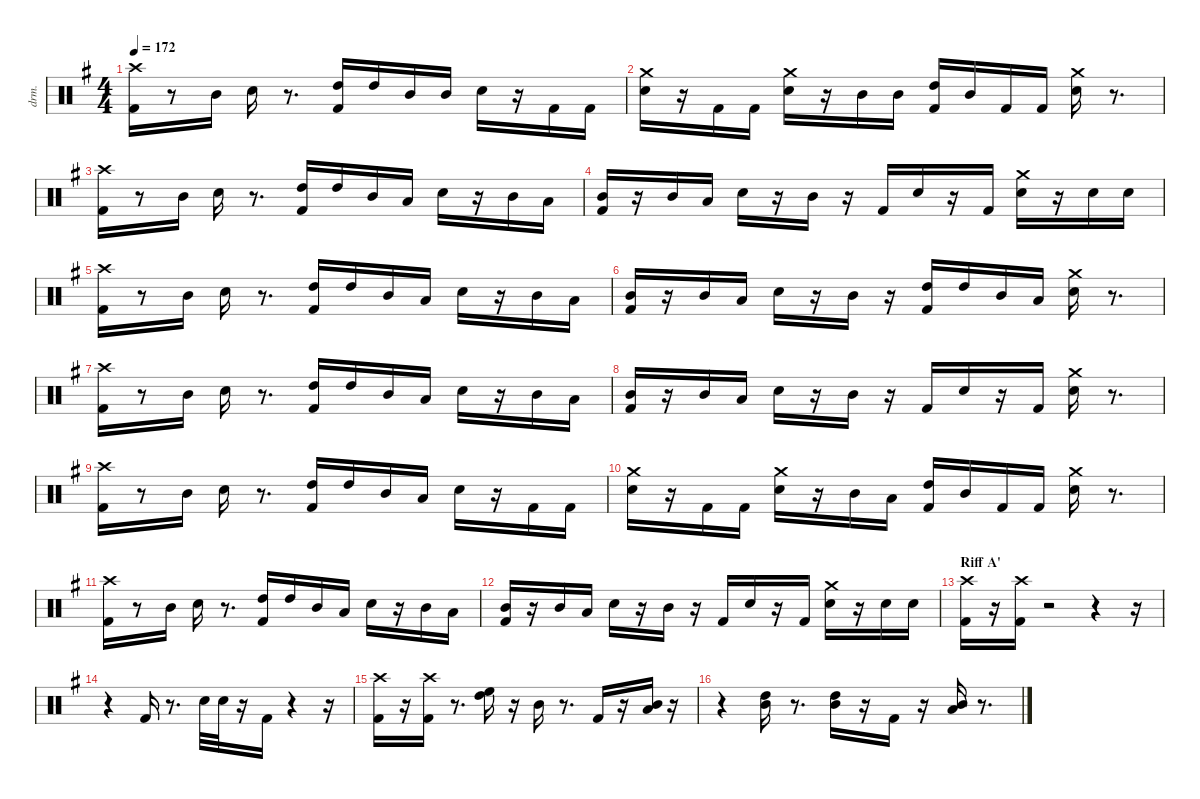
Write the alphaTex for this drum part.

\defaultSystemsLayout 4
\hideDynamics
\bracketExtendMode nobrackets
\otherSystemsTrackNameOrientation horizontal
\track ("Shinya" "drm.") {instrument percussion}
\staff {score}
\articulation defaults
\ts (4 4)
\tempo 172
\clef neutral
\ks eminor
("Kick (hit) 2"{acc forcenatural} "Crash high (hit)"{acc #}).16{dy fff beam Down} r.8{beam Down} "Mid Tom (hit)"{acc forcenatural}.16{beam Down} "Snare (hit) 2"{acc forcenatural}.16{beam Down} r.8{d beam Down} ("Kick (hit) 2"{acc forcenatural} "High Tom (hit)"{acc forcenatural}).16{beam Up} "High Tom (hit)"{acc forcenatural}.16{beam Up} "Mid Tom (hit)"{acc forcenatural}.16{beam Up} "Mid Tom (hit)"{acc forcenatural}.16{beam Up} "Snare (hit) 2"{acc forcenatural}.16{beam Down} r.16{beam Down} "Kick (hit) 2"{acc forcenatural}.16{beam Up} "Kick (hit) 2"{acc forcenatural}.16{beam Up} |
("Snare (hit) 2"{acc forcenatural} "Crash medium (hit)"{acc forcenatural}).16{beam Down} r.16{beam Down} "Kick (hit) 2"{acc forcenatural}.16{beam Up} "Kick (hit) 2"{acc forcenatural}.16{beam Up} ("Snare (hit) 2"{acc forcenatural} "Crash medium (hit)"{acc forcenatural}).16{beam Down} r.16{beam Down} "Mid Tom (hit)"{acc forcenatural}.16{beam Up} "Mid Tom (hit)"{acc forcenatural}.16{beam Up} ("Kick (hit) 2"{acc forcenatural} "High Tom (hit)"{acc forcenatural}).16{beam Up} "Mid Tom (hit)"{acc forcenatural}.16{beam Up} "Kick (hit) 2"{acc forcenatural}.16{beam Up} "Kick (hit) 2"{acc forcenatural}.16{beam Up} ("Snare (hit) 2"{acc forcenatural} "Crash medium (hit)"{acc forcenatural}).16{beam Down} r.8{d beam Down} |
("Kick (hit) 2"{acc forcenatural} "Crash high (hit)"{acc #}).16{beam Down} r.8{beam Down} "Mid Tom (hit)"{acc forcenatural}.16{beam Down} "Snare (hit) 2"{acc forcenatural}.16{beam Down} r.8{d beam Down} ("Kick (hit) 2"{acc forcenatural} "High Tom (hit)"{acc forcenatural}).16{beam Up} "High Tom (hit)"{acc forcenatural}.16{beam Up} "Mid Tom (hit)"{acc forcenatural}.16{beam Up} "Low Tom (hit)"{acc forcenatural}.16{beam Up} "Snare (hit) 2"{acc forcenatural}.16{beam Down} r.16{beam Down} "Mid Tom (hit)"{acc forcenatural}.16{beam Up} "Low Tom (hit)"{acc forcenatural}.16{beam Up} |
("Kick (hit) 2"{acc forcenatural} "Mid Tom (hit)"{acc forcenatural}).16{beam Up} r.16{beam Up} "Mid Tom (hit)"{acc forcenatural}.16{beam Up} "Low Tom (hit)"{acc forcenatural}.16{dy ff beam Up} "Snare (hit) 2"{acc forcenatural}.16{dy fff beam Down} r.16{beam Down} "Mid Tom (hit)"{acc forcenatural}.16{beam Down} r.16{beam Down} "Kick (hit) 2"{acc forcenatural}.16{beam Up} "Snare (hit) 2"{acc forcenatural}.16{beam Up} r.16{beam Up} "Kick (hit) 2"{acc forcenatural}.16{beam Up} ("Snare (hit) 2"{acc forcenatural} "Crash medium (hit)"{acc forcenatural}).16{beam Down} r.16{beam Down} "Snare (hit) 2"{acc forcenatural}.16{beam Down} "Snare (hit) 2"{acc forcenatural}.16{beam Down} |
("Kick (hit) 2"{acc forcenatural} "Crash high (hit)"{acc #}).16{beam Down} r.8{beam Down} "Mid Tom (hit)"{acc forcenatural}.16{beam Down} "Snare (hit) 2"{acc forcenatural}.16{beam Down} r.8{d beam Down} ("Kick (hit) 2"{acc forcenatural} "High Tom (hit)"{acc forcenatural}).16{beam Up} "High Tom (hit)"{acc forcenatural}.16{beam Up} "Mid Tom (hit)"{acc forcenatural}.16{beam Up} "Low Tom (hit)"{acc forcenatural}.16{beam Up} "Snare (hit) 2"{acc forcenatural}.16{beam Down} r.16{beam Down} "Mid Tom (hit)"{acc forcenatural}.16{beam Up} "Low Tom (hit)"{acc forcenatural}.16{beam Up} |
("Kick (hit) 2"{acc forcenatural} "Mid Tom (hit)"{acc forcenatural}).16{beam Up} r.16{beam Up} "Mid Tom (hit)"{acc forcenatural}.16{beam Up} "Low Tom (hit)"{acc forcenatural}.16{dy ff beam Up} "Snare (hit) 2"{acc forcenatural}.16{dy fff beam Down} r.16{beam Down} "Mid Tom (hit)"{acc forcenatural}.16{beam Down} r.16{beam Down} ("Kick (hit) 2"{acc forcenatural} "High Tom (hit)"{acc forcenatural}).16{beam Up} "High Tom (hit)"{acc forcenatural}.16{beam Up} "Mid Tom (hit)"{acc forcenatural}.16{beam Up} "Low Tom (hit)"{acc forcenatural}.16{beam Up} ("Snare (hit) 2"{acc forcenatural} "Crash medium (hit)"{acc forcenatural}).16{beam Down} r.8{d beam Down} |
("Kick (hit) 2"{acc forcenatural} "Crash high (hit)"{acc #}).16{beam Down} r.8{beam Down} "Mid Tom (hit)"{acc forcenatural}.16{beam Down} "Snare (hit) 2"{acc forcenatural}.16{beam Down} r.8{d beam Down} ("Kick (hit) 2"{acc forcenatural} "High Tom (hit)"{acc forcenatural}).16{beam Up} "High Tom (hit)"{acc forcenatural}.16{beam Up} "Mid Tom (hit)"{acc forcenatural}.16{beam Up} "Low Tom (hit)"{acc forcenatural}.16{beam Up} "Snare (hit) 2"{acc forcenatural}.16{beam Down} r.16{beam Down} "Mid Tom (hit)"{acc forcenatural}.16{beam Up} "Low Tom (hit)"{acc forcenatural}.16{beam Up} |
("Kick (hit) 2"{acc forcenatural} "Mid Tom (hit)"{acc forcenatural}).16{beam Up} r.16{beam Up} "Mid Tom (hit)"{acc forcenatural}.16{beam Up} "Low Tom (hit)"{acc forcenatural}.16{dy ff beam Up} "Snare (hit) 2"{acc forcenatural}.16{dy fff beam Down} r.16{beam Down} "Mid Tom (hit)"{acc forcenatural}.16{beam Down} r.16{beam Down} "Kick (hit) 2"{acc forcenatural}.16{beam Up} "Snare (hit) 2"{acc forcenatural}.16{beam Up} r.16{beam Up} "Kick (hit) 2"{acc forcenatural}.16{beam Up} ("Snare (hit) 2"{acc forcenatural} "Crash medium (hit)"{acc forcenatural}).16{beam Down} r.8{d beam Down} |
("Kick (hit) 2"{acc forcenatural} "Crash high (hit)"{acc #}).16{beam Down} r.8{beam Down} "Mid Tom (hit)"{acc forcenatural}.16{beam Down} "Snare (hit) 2"{acc forcenatural}.16{beam Down} r.8{d beam Down} ("Kick (hit) 2"{acc forcenatural} "High Tom (hit)"{acc forcenatural}).16{beam Up} "High Tom (hit)"{acc forcenatural}.16{beam Up} "Mid Tom (hit)"{acc forcenatural}.16{beam Up} "Low Tom (hit)"{acc forcenatural}.16{beam Up} "Snare (hit) 2"{acc forcenatural}.16{beam Down} r.16{beam Down} "Kick (hit) 2"{acc forcenatural}.16{beam Up} "Kick (hit) 2"{acc forcenatural}.16{beam Up} |
("Snare (hit) 2"{acc forcenatural} "Crash medium (hit)"{acc forcenatural}).16{beam Down} r.16{beam Down} "Kick (hit) 2"{acc forcenatural}.16{beam Up} "Kick (hit) 2"{acc forcenatural}.16{beam Up} ("Snare (hit) 2"{acc forcenatural} "Crash medium (hit)"{acc forcenatural}).16{beam Down} r.16{beam Down} "Mid Tom (hit)"{acc forcenatural}.16{beam Up} "Low Tom (hit)"{acc forcenatural}.16{beam Up} ("Kick (hit) 2"{acc forcenatural} "High Tom (hit)"{acc forcenatural}).16{beam Up} "Mid Tom (hit)"{acc forcenatural}.16{beam Up} "Kick (hit) 2"{acc forcenatural}.16{beam Up} "Kick (hit) 2"{acc forcenatural}.16{beam Up} ("Snare (hit) 2"{acc forcenatural} "Crash medium (hit)"{acc forcenatural}).16{beam Down} r.8{d beam Down} |
("Kick (hit) 2"{acc forcenatural} "Crash high (hit)"{acc #}).16{beam Down} r.8{beam Down} "Mid Tom (hit)"{acc forcenatural}.16{beam Down} "Snare (hit) 2"{acc forcenatural}.16{beam Down} r.8{d beam Down} ("Kick (hit) 2"{acc forcenatural} "High Tom (hit)"{acc forcenatural}).16{beam Up} "High Tom (hit)"{acc forcenatural}.16{beam Up} "Mid Tom (hit)"{acc forcenatural}.16{beam Up} "Low Tom (hit)"{acc forcenatural}.16{beam Up} "Snare (hit) 2"{acc forcenatural}.16{beam Down} r.16{beam Down} "Mid Tom (hit)"{acc forcenatural}.16{beam Up} "Low Tom (hit)"{acc forcenatural}.16{beam Up} |
("Kick (hit) 2"{acc forcenatural} "Mid Tom (hit)"{acc forcenatural}).16{beam Up} r.16{beam Up} "Mid Tom (hit)"{acc forcenatural}.16{beam Up} "Low Tom (hit)"{acc forcenatural}.16{dy ff beam Up} "Snare (hit) 2"{acc forcenatural}.16{dy fff beam Down} r.16{beam Down} "Mid Tom (hit)"{acc forcenatural}.16{beam Down} r.16{beam Down} "Kick (hit) 2"{acc forcenatural}.16{beam Up} "Snare (hit) 2"{acc forcenatural}.16{beam Up} r.16{beam Up} "Kick (hit) 2"{acc forcenatural}.16{beam Up} ("Snare (hit) 2"{acc forcenatural} "Crash medium (hit)"{acc forcenatural}).16{beam Down} r.16{beam Down} "Snare (hit) 2"{acc forcenatural}.16{beam Down} "Snare (hit) 2"{acc forcenatural}.16{beam Down} |
\section ("" "Riff A'")
("Kick (hit) 2"{acc forcenatural} "Crash high (hit)"{acc #}).16{beam Down} r.16{beam Down} ("Kick (hit) 2"{acc forcenatural} "Crash high (hit)"{acc #}).16{beam Down} r.2{beam Down} r.4{beam Down} r.16{beam Down} |
r.4{beam Down} "Kick (hit) 2"{acc forcenatural}.16{beam Up} r.8{d beam Up} "Snare (hit) 2"{acc forcenatural}.32{beam Down} "Snare (hit) 2"{acc forcenatural}.32{beam Down} r.16{beam Down} "Kick (hit) 2"{acc forcenatural}.16{beam Up} r.4{beam Up} r.16{beam Up} |
("Kick (hit) 2"{acc forcenatural} "Crash high (hit)"{acc #}).16{beam Down} r.16{beam Down} ("Kick (hit) 2"{acc forcenatural} "Crash high (hit)"{acc #}).16{beam Down} r.8{d beam Down} ("High Tom (hit)"{acc forcenatural} "High Floor Tom (hit)"{acc forcenatural}).16{beam Down} r.16{beam Down} "Mid Tom (hit)"{acc forcenatural}.16{beam Down} r.8{d beam Down} "Kick (hit) 2"{acc forcenatural}.16{beam Up} r.16{beam Up} ("Low Tom (hit)"{acc forcenatural} "Mid Tom (hit)"{acc forcenatural}).16{beam Up} r.16{beam Up} |
r.4{beam Down} ("Mid Tom (hit)"{acc forcenatural} "High Tom (hit)"{acc forcenatural}).16{beam Down} r.8{d beam Down} ("Mid Tom (hit)"{acc forcenatural} "High Tom (hit)"{acc forcenatural}).16{beam Down} r.16{beam Down} "Kick (hit) 2"{acc forcenatural}.16{beam Up} r.16{beam Up} ("Low Tom (hit)"{acc forcenatural} "Mid Tom (hit)"{acc forcenatural}).16{beam Up} r.8{d beam Up}
